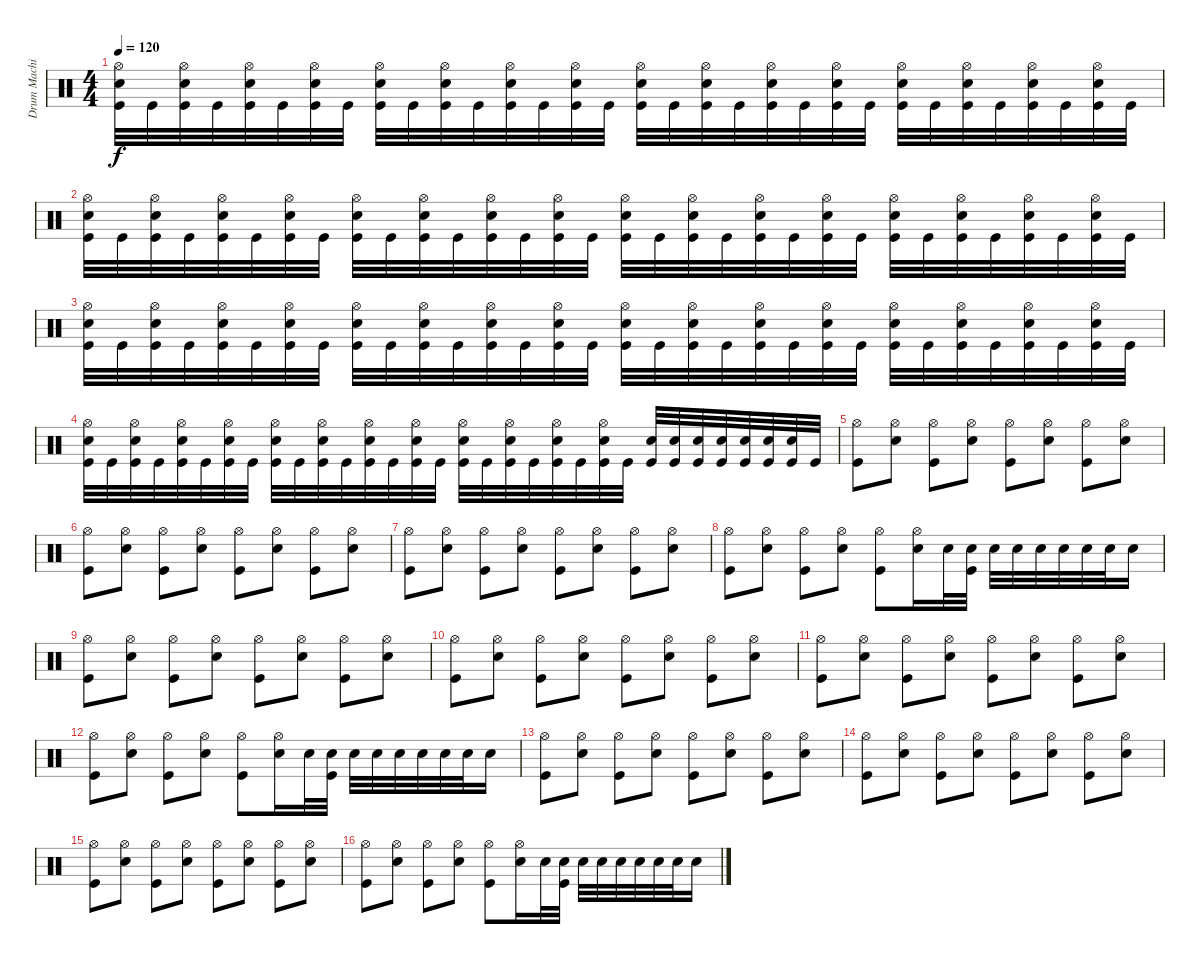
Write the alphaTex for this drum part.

\track ("Drum Machine" "Drum Machi") {instrument percussion}
\staff {score}
\articulation defaults
\ts (4 4)
\tempo 120
\clef neutral
\ks c
("Hi-Hat (open)" "Electric Snare (hit)" "Kick (hit)").32{dy f} "Kick (hit)".32 ("Hi-Hat (open)" "Electric Snare (hit)" "Kick (hit)").32 "Kick (hit)".32 ("Hi-Hat (open)" "Electric Snare (hit)" "Kick (hit)").32 "Kick (hit)".32 ("Hi-Hat (open)" "Electric Snare (hit)" "Kick (hit)").32 "Kick (hit)".32 ("Hi-Hat (open)" "Electric Snare (hit)" "Kick (hit)").32 "Kick (hit)".32 ("Hi-Hat (open)" "Electric Snare (hit)" "Kick (hit)").32 "Kick (hit)".32 ("Hi-Hat (open)" "Electric Snare (hit)" "Kick (hit)").32 "Kick (hit)".32 ("Hi-Hat (open)" "Electric Snare (hit)" "Kick (hit)").32 "Kick (hit)".32 ("Hi-Hat (open)" "Electric Snare (hit)" "Kick (hit)").32 "Kick (hit)".32 ("Hi-Hat (open)" "Electric Snare (hit)" "Kick (hit)").32 "Kick (hit)".32 ("Hi-Hat (open)" "Electric Snare (hit)" "Kick (hit)").32 "Kick (hit)".32 ("Hi-Hat (open)" "Electric Snare (hit)" "Kick (hit)").32 "Kick (hit)".32 ("Hi-Hat (open)" "Electric Snare (hit)" "Kick (hit)").32 "Kick (hit)".32 ("Hi-Hat (open)" "Electric Snare (hit)" "Kick (hit)").32 "Kick (hit)".32 ("Hi-Hat (open)" "Electric Snare (hit)" "Kick (hit)").32 "Kick (hit)".32 ("Hi-Hat (open)" "Electric Snare (hit)" "Kick (hit)").32 "Kick (hit)".32 |
("Hi-Hat (open)" "Electric Snare (hit)" "Kick (hit)").32 "Kick (hit)".32 ("Hi-Hat (open)" "Electric Snare (hit)" "Kick (hit)").32 "Kick (hit)".32 ("Hi-Hat (open)" "Electric Snare (hit)" "Kick (hit)").32 "Kick (hit)".32 ("Hi-Hat (open)" "Electric Snare (hit)" "Kick (hit)").32 "Kick (hit)".32 ("Hi-Hat (open)" "Electric Snare (hit)" "Kick (hit)").32 "Kick (hit)".32 ("Hi-Hat (open)" "Electric Snare (hit)" "Kick (hit)").32 "Kick (hit)".32 ("Hi-Hat (open)" "Electric Snare (hit)" "Kick (hit)").32 "Kick (hit)".32 ("Hi-Hat (open)" "Electric Snare (hit)" "Kick (hit)").32 "Kick (hit)".32 ("Hi-Hat (open)" "Electric Snare (hit)" "Kick (hit)").32 "Kick (hit)".32 ("Hi-Hat (open)" "Electric Snare (hit)" "Kick (hit)").32 "Kick (hit)".32 ("Hi-Hat (open)" "Electric Snare (hit)" "Kick (hit)").32 "Kick (hit)".32 ("Hi-Hat (open)" "Electric Snare (hit)" "Kick (hit)").32 "Kick (hit)".32 ("Hi-Hat (open)" "Electric Snare (hit)" "Kick (hit)").32 "Kick (hit)".32 ("Hi-Hat (open)" "Electric Snare (hit)" "Kick (hit)").32 "Kick (hit)".32 ("Hi-Hat (open)" "Electric Snare (hit)" "Kick (hit)").32 "Kick (hit)".32 ("Hi-Hat (open)" "Electric Snare (hit)" "Kick (hit)").32 "Kick (hit)".32 |
("Hi-Hat (open)" "Electric Snare (hit)" "Kick (hit)").32 "Kick (hit)".32 ("Hi-Hat (open)" "Electric Snare (hit)" "Kick (hit)").32 "Kick (hit)".32 ("Hi-Hat (open)" "Electric Snare (hit)" "Kick (hit)").32 "Kick (hit)".32 ("Hi-Hat (open)" "Electric Snare (hit)" "Kick (hit)").32 "Kick (hit)".32 ("Hi-Hat (open)" "Electric Snare (hit)" "Kick (hit)").32 "Kick (hit)".32 ("Hi-Hat (open)" "Electric Snare (hit)" "Kick (hit)").32 "Kick (hit)".32 ("Hi-Hat (open)" "Electric Snare (hit)" "Kick (hit)").32 "Kick (hit)".32 ("Hi-Hat (open)" "Electric Snare (hit)" "Kick (hit)").32 "Kick (hit)".32 ("Hi-Hat (open)" "Electric Snare (hit)" "Kick (hit)").32 "Kick (hit)".32 ("Hi-Hat (open)" "Electric Snare (hit)" "Kick (hit)").32 "Kick (hit)".32 ("Hi-Hat (open)" "Electric Snare (hit)" "Kick (hit)").32 "Kick (hit)".32 ("Hi-Hat (open)" "Electric Snare (hit)" "Kick (hit)").32 "Kick (hit)".32 ("Hi-Hat (open)" "Electric Snare (hit)" "Kick (hit)").32 "Kick (hit)".32 ("Hi-Hat (open)" "Electric Snare (hit)" "Kick (hit)").32 "Kick (hit)".32 ("Hi-Hat (open)" "Electric Snare (hit)" "Kick (hit)").32 "Kick (hit)".32 ("Hi-Hat (open)" "Electric Snare (hit)" "Kick (hit)").32 "Kick (hit)".32 |
("Hi-Hat (open)" "Electric Snare (hit)" "Kick (hit)").32 "Kick (hit)".32 ("Hi-Hat (open)" "Electric Snare (hit)" "Kick (hit)").32 "Kick (hit)".32 ("Hi-Hat (open)" "Electric Snare (hit)" "Kick (hit)").32 "Kick (hit)".32 ("Hi-Hat (open)" "Electric Snare (hit)" "Kick (hit)").32 "Kick (hit)".32 ("Hi-Hat (open)" "Electric Snare (hit)" "Kick (hit)").32 "Kick (hit)".32 ("Hi-Hat (open)" "Electric Snare (hit)" "Kick (hit)").32 "Kick (hit)".32 ("Hi-Hat (open)" "Electric Snare (hit)" "Kick (hit)").32 "Kick (hit)".32 ("Hi-Hat (open)" "Electric Snare (hit)" "Kick (hit)").32 "Kick (hit)".32 ("Hi-Hat (open)" "Electric Snare (hit)" "Kick (hit)").32 "Kick (hit)".32 ("Hi-Hat (open)" "Electric Snare (hit)" "Kick (hit)").32 "Kick (hit)".32 ("Hi-Hat (open)" "Electric Snare (hit)" "Kick (hit)").32 "Kick (hit)".32 ("Hi-Hat (open)" "Electric Snare (hit)" "Kick (hit)").32 "Kick (hit)".32 ("Electric Snare (hit)" "Kick (hit)").32 ("Electric Snare (hit)" "Kick (hit)").32 ("Electric Snare (hit)" "Kick (hit)").32 ("Electric Snare (hit)" "Kick (hit)").32 ("Electric Snare (hit)" "Kick (hit)").32 ("Electric Snare (hit)" "Kick (hit)").32 ("Electric Snare (hit)" "Kick (hit)").32 "Kick (hit)".32 |
("Hi-Hat (open)" "Kick (hit)").8 ("Hi-Hat (open)" "Electric Snare (hit)").8 ("Hi-Hat (open)" "Kick (hit)").8 ("Hi-Hat (open)" "Electric Snare (hit)").8 ("Hi-Hat (open)" "Kick (hit)").8 ("Hi-Hat (open)" "Electric Snare (hit)").8 ("Hi-Hat (open)" "Kick (hit)").8 ("Hi-Hat (open)" "Electric Snare (hit)").8 |
("Hi-Hat (open)" "Kick (hit)").8 ("Hi-Hat (open)" "Electric Snare (hit)").8 ("Hi-Hat (open)" "Kick (hit)").8 ("Hi-Hat (open)" "Electric Snare (hit)").8 ("Hi-Hat (open)" "Kick (hit)").8 ("Hi-Hat (open)" "Electric Snare (hit)").8 ("Hi-Hat (open)" "Kick (hit)").8 ("Hi-Hat (open)" "Electric Snare (hit)").8 |
("Hi-Hat (open)" "Kick (hit)").8 ("Hi-Hat (open)" "Electric Snare (hit)").8 ("Hi-Hat (open)" "Kick (hit)").8 ("Hi-Hat (open)" "Electric Snare (hit)").8 ("Hi-Hat (open)" "Kick (hit)").8 ("Hi-Hat (open)" "Electric Snare (hit)").8 ("Hi-Hat (open)" "Kick (hit)").8 ("Hi-Hat (open)" "Electric Snare (hit)").8 |
("Hi-Hat (open)" "Kick (hit)").8 ("Hi-Hat (open)" "Electric Snare (hit)").8 ("Hi-Hat (open)" "Kick (hit)").8 ("Hi-Hat (open)" "Electric Snare (hit)").8 ("Hi-Hat (open)" "Kick (hit)").8 ("Hi-Hat (open)" "Electric Snare (hit)").16 "Electric Snare (hit)".32 ("Electric Snare (hit)" "Kick (hit)").32 "Electric Snare (hit)".32 "Electric Snare (hit)".32 "Electric Snare (hit)".32 "Electric Snare (hit)".32 "Electric Snare (hit)".32 "Electric Snare (hit)".32 "Electric Snare (hit)".16 |
("Hi-Hat (open)" "Kick (hit)").8 ("Hi-Hat (open)" "Electric Snare (hit)").8 ("Hi-Hat (open)" "Kick (hit)").8 ("Hi-Hat (open)" "Electric Snare (hit)").8 ("Hi-Hat (open)" "Kick (hit)").8 ("Hi-Hat (open)" "Electric Snare (hit)").8 ("Hi-Hat (open)" "Kick (hit)").8 ("Hi-Hat (open)" "Electric Snare (hit)").8 |
("Hi-Hat (open)" "Kick (hit)").8 ("Hi-Hat (open)" "Electric Snare (hit)").8 ("Hi-Hat (open)" "Kick (hit)").8 ("Hi-Hat (open)" "Electric Snare (hit)").8 ("Hi-Hat (open)" "Kick (hit)").8 ("Hi-Hat (open)" "Electric Snare (hit)").8 ("Hi-Hat (open)" "Kick (hit)").8 ("Hi-Hat (open)" "Electric Snare (hit)").8 |
("Hi-Hat (open)" "Kick (hit)").8 ("Hi-Hat (open)" "Electric Snare (hit)").8 ("Hi-Hat (open)" "Kick (hit)").8 ("Hi-Hat (open)" "Electric Snare (hit)").8 ("Hi-Hat (open)" "Kick (hit)").8 ("Hi-Hat (open)" "Electric Snare (hit)").8 ("Hi-Hat (open)" "Kick (hit)").8 ("Hi-Hat (open)" "Electric Snare (hit)").8 |
("Hi-Hat (open)" "Kick (hit)").8 ("Hi-Hat (open)" "Electric Snare (hit)").8 ("Hi-Hat (open)" "Kick (hit)").8 ("Hi-Hat (open)" "Electric Snare (hit)").8 ("Hi-Hat (open)" "Kick (hit)").8 ("Hi-Hat (open)" "Electric Snare (hit)").16 "Electric Snare (hit)".32 ("Electric Snare (hit)" "Kick (hit)").32 "Electric Snare (hit)".32 "Electric Snare (hit)".32 "Electric Snare (hit)".32 "Electric Snare (hit)".32 "Electric Snare (hit)".32 "Electric Snare (hit)".32 "Electric Snare (hit)".16 |
("Hi-Hat (open)" "Kick (hit)").8 ("Hi-Hat (open)" "Electric Snare (hit)").8 ("Hi-Hat (open)" "Kick (hit)").8 ("Hi-Hat (open)" "Electric Snare (hit)").8 ("Hi-Hat (open)" "Kick (hit)").8 ("Hi-Hat (open)" "Electric Snare (hit)").8 ("Hi-Hat (open)" "Kick (hit)").8 ("Hi-Hat (open)" "Electric Snare (hit)").8 |
("Hi-Hat (open)" "Kick (hit)").8 ("Hi-Hat (open)" "Electric Snare (hit)").8 ("Hi-Hat (open)" "Kick (hit)").8 ("Hi-Hat (open)" "Electric Snare (hit)").8 ("Hi-Hat (open)" "Kick (hit)").8 ("Hi-Hat (open)" "Electric Snare (hit)").8 ("Hi-Hat (open)" "Kick (hit)").8 ("Hi-Hat (open)" "Electric Snare (hit)").8 |
("Hi-Hat (open)" "Kick (hit)").8 ("Hi-Hat (open)" "Electric Snare (hit)").8 ("Hi-Hat (open)" "Kick (hit)").8 ("Hi-Hat (open)" "Electric Snare (hit)").8 ("Hi-Hat (open)" "Kick (hit)").8 ("Hi-Hat (open)" "Electric Snare (hit)").8 ("Hi-Hat (open)" "Kick (hit)").8 ("Hi-Hat (open)" "Electric Snare (hit)").8 |
("Hi-Hat (open)" "Kick (hit)").8 ("Hi-Hat (open)" "Electric Snare (hit)").8 ("Hi-Hat (open)" "Kick (hit)").8 ("Hi-Hat (open)" "Electric Snare (hit)").8 ("Hi-Hat (open)" "Kick (hit)").8 ("Hi-Hat (open)" "Electric Snare (hit)").16 "Electric Snare (hit)".32 ("Electric Snare (hit)" "Kick (hit)").32 "Electric Snare (hit)".32 "Electric Snare (hit)".32 "Electric Snare (hit)".32 "Electric Snare (hit)".32 "Electric Snare (hit)".32 "Electric Snare (hit)".32 "Electric Snare (hit)".16
